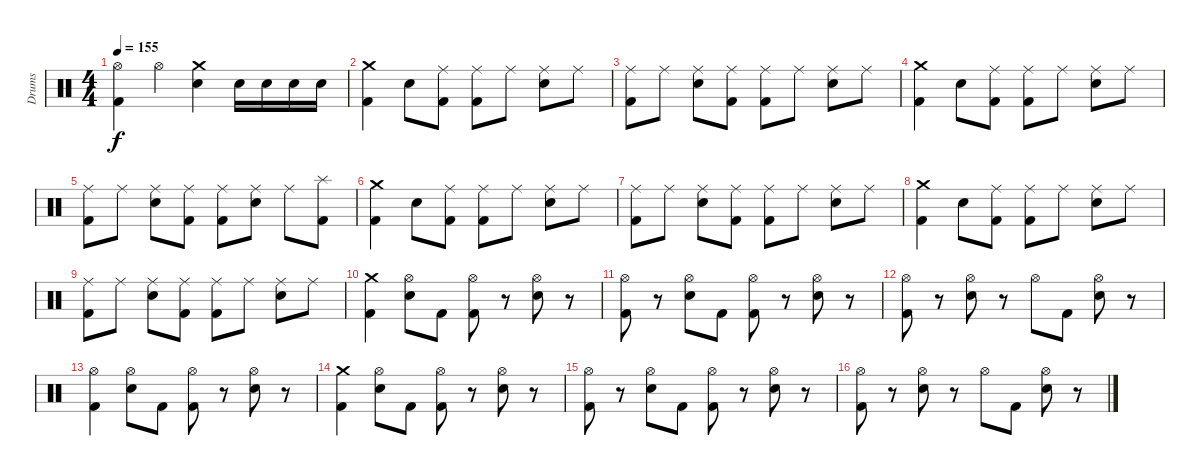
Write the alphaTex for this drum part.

\track ("Drums" "Drums") {instrument percussion}
\staff {score}
\articulation defaults
\ts (4 4)
\tempo 155
\clef neutral
\ks c
("Hi-Hat (open)" "Kick (hit) 2").4{dy f} "Hi-Hat (open)".4 ("Snare (hit) 2" "Crash medium (hit)").4 "Snare (hit) 2".16 "Snare (hit) 2".16 "Snare (hit) 2".16 "Snare (hit) 2".16 |
("Crash medium (hit)" "Kick (hit) 2").4 "Snare (hit) 2".8 ("Ride (middle)" "Kick (hit) 2").8 ("Ride (middle)" "Kick (hit) 2").8 "Ride (middle)".8 ("Snare (hit) 2" "Ride (middle)").8 "Ride (middle)".8 |
("Ride (middle)" "Kick (hit) 2").8 "Ride (middle)".8 ("Snare (hit) 2" "Ride (middle)").8 ("Ride (middle)" "Kick (hit) 2").8 ("Ride (middle)" "Kick (hit) 2").8 "Ride (middle)".8 ("Snare (hit) 2" "Ride (middle)").8 "Ride (middle)".8 |
("Crash medium (hit)" "Kick (hit) 2").4 "Snare (hit) 2".8 ("Ride (middle)" "Kick (hit) 2").8 ("Ride (middle)" "Kick (hit) 2").8 "Ride (middle)".8 ("Snare (hit) 2" "Ride (middle)").8 "Ride (middle)".8 |
("Ride (middle)" "Kick (hit) 2").8 "Ride (middle)".8 ("Snare (hit) 2" "Ride (middle)").8 ("Ride (middle)" "Kick (hit) 2").8 ("Ride (middle)" "Kick (hit) 2").8 ("Snare (hit) 2" "Ride (middle)").8 "Ride (middle)".8 ("Splash (hit)" "Kick (hit) 2").8 |
("Crash medium (hit)" "Kick (hit) 2").4 "Snare (hit) 2".8 ("Ride (middle)" "Kick (hit) 2").8 ("Ride (middle)" "Kick (hit) 2").8 "Ride (middle)".8 ("Snare (hit) 2" "Ride (middle)").8 "Ride (middle)".8 |
("Ride (middle)" "Kick (hit) 2").8 "Ride (middle)".8 ("Snare (hit) 2" "Ride (middle)").8 ("Ride (middle)" "Kick (hit) 2").8 ("Ride (middle)" "Kick (hit) 2").8 "Ride (middle)".8 ("Snare (hit) 2" "Ride (middle)").8 "Ride (middle)".8 |
("Crash medium (hit)" "Kick (hit) 2").4 "Snare (hit) 2".8 ("Ride (middle)" "Kick (hit) 2").8 ("Ride (middle)" "Kick (hit) 2").8 "Ride (middle)".8 ("Snare (hit) 2" "Ride (middle)").8 "Ride (middle)".8 |
("Ride (middle)" "Kick (hit) 2").8 "Ride (middle)".8 ("Snare (hit) 2" "Ride (middle)").8 ("Ride (middle)" "Kick (hit) 2").8 ("Ride (middle)" "Kick (hit) 2").8 "Ride (middle)".8 ("Snare (hit) 2" "Ride (middle)").8 "Ride (middle)".8 |
("Crash medium (hit)" "Kick (hit) 2").4 ("Snare (hit) 2" "Hi-Hat (open)").8 "Kick (hit) 2".8 ("Hi-Hat (open)" "Kick (hit) 2").8 r.8 ("Snare (hit) 2" "Hi-Hat (open)").8 r.8 |
("Hi-Hat (open)" "Kick (hit) 2").8 r.8 ("Snare (hit) 2" "Hi-Hat (open)").8 "Kick (hit) 2".8 ("Hi-Hat (open)" "Kick (hit) 2").8 r.8 ("Snare (hit) 2" "Hi-Hat (open)").8 r.8 |
("Hi-Hat (open)" "Kick (hit) 2").8 r.8 ("Snare (hit) 2" "Hi-Hat (open)").8 r.8 "Hi-Hat (open)".8 "Kick (hit) 2".8 ("Snare (hit) 2" "Hi-Hat (open)").8 r.8 |
("Hi-Hat (open)" "Kick (hit) 2").4 ("Snare (hit) 2" "Hi-Hat (open)").8 "Kick (hit) 2".8 ("Hi-Hat (open)" "Kick (hit) 2").8 r.8 ("Snare (hit) 2" "Hi-Hat (open)").8 r.8 |
("Crash medium (hit)" "Kick (hit) 2").4 ("Snare (hit) 2" "Hi-Hat (open)").8 "Kick (hit) 2".8 ("Hi-Hat (open)" "Kick (hit) 2").8 r.8 ("Snare (hit) 2" "Hi-Hat (open)").8 r.8 |
("Hi-Hat (open)" "Kick (hit) 2").8 r.8 ("Snare (hit) 2" "Hi-Hat (open)").8 "Kick (hit) 2".8 ("Hi-Hat (open)" "Kick (hit) 2").8 r.8 ("Snare (hit) 2" "Hi-Hat (open)").8 r.8 |
("Hi-Hat (open)" "Kick (hit) 2").8 r.8 ("Snare (hit) 2" "Hi-Hat (open)").8 r.8 "Hi-Hat (open)".8 "Kick (hit) 2".8 ("Snare (hit) 2" "Hi-Hat (open)").8 r.8
